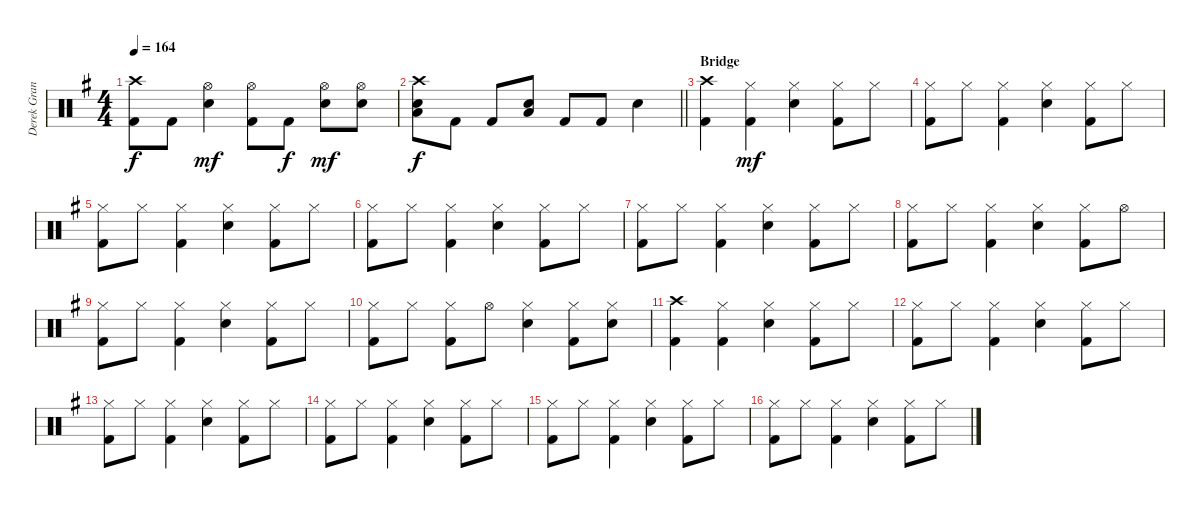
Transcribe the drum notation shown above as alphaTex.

\track ("Derek Grant - Drums" "Derek Gran") {instrument percussion}
\staff {score}
\articulation defaults
\ts (4 4)
\tempo 164
\clef neutral
\ks eminor
("Kick (hit) 2" "Crash high (hit)").8{dy f} "Kick (hit) 2".8 ("Snare (hit) 2" "Hi-Hat (open)").4{dy mf} ("Kick (hit) 2" "Hi-Hat (open)").8 "Kick (hit) 2".8{dy f} ("Snare (hit) 2" "Hi-Hat (open)").8{dy mf} ("Snare (hit) 2" "Hi-Hat (open)").8 |
\barLineRight lightlight
("Snare (hit) 2" "Low Tom (hit)" "Crash high (hit)").8{dy f} "Kick (hit) 2".8 "Kick (hit) 2".8 ("Low Tom (hit)" "Electric Snare (hit)").8 "Kick (hit) 2".8 "Kick (hit) 2".8 "Snare (hit) 2".4 |
\section ("" "Bridge")
("Crash high (hit)" "Kick (hit) 2").4 ("Kick (hit) 2" "Hi-Hat (closed)").4{dy mf} ("Snare (hit) 2" "Hi-Hat (closed)").4 ("Hi-Hat (closed)" "Kick (hit) 2").8 "Hi-Hat (closed)".8 |
("Hi-Hat (closed)" "Kick (hit) 2").8 "Hi-Hat (closed)".8 ("Kick (hit) 2" "Hi-Hat (closed)").4 ("Snare (hit) 2" "Hi-Hat (closed)").4 ("Hi-Hat (closed)" "Kick (hit) 2").8 "Hi-Hat (closed)".8 |
("Hi-Hat (closed)" "Kick (hit) 2").8 "Hi-Hat (closed)".8 ("Kick (hit) 2" "Hi-Hat (closed)").4 ("Snare (hit) 2" "Hi-Hat (closed)").4 ("Hi-Hat (closed)" "Kick (hit) 2").8 "Hi-Hat (closed)".8 |
("Hi-Hat (closed)" "Kick (hit) 2").8 "Hi-Hat (closed)".8 ("Kick (hit) 2" "Hi-Hat (closed)").4 ("Snare (hit) 2" "Hi-Hat (closed)").4 ("Hi-Hat (closed)" "Kick (hit) 2").8 "Hi-Hat (closed)".8 |
("Hi-Hat (closed)" "Kick (hit) 2").8 "Hi-Hat (closed)".8 ("Kick (hit) 2" "Hi-Hat (closed)").4 ("Snare (hit) 2" "Hi-Hat (closed)").4 ("Hi-Hat (closed)" "Kick (hit) 2").8 "Hi-Hat (closed)".8 |
("Hi-Hat (closed)" "Kick (hit) 2").8 "Hi-Hat (closed)".8 ("Kick (hit) 2" "Hi-Hat (closed)").4 ("Snare (hit) 2" "Hi-Hat (closed)").4 ("Hi-Hat (closed)" "Kick (hit) 2").8 "Hi-Hat (open)".8 |
("Hi-Hat (closed)" "Kick (hit) 2").8 "Hi-Hat (closed)".8 ("Kick (hit) 2" "Hi-Hat (closed)").4 ("Snare (hit) 2" "Hi-Hat (closed)").4 ("Hi-Hat (closed)" "Kick (hit) 2").8 "Hi-Hat (closed)".8 |
("Hi-Hat (closed)" "Kick (hit) 2").8 "Hi-Hat (closed)".8 ("Kick (hit) 2" "Hi-Hat (closed)").8 "Hi-Hat (open)".8 ("Snare (hit) 2" "Hi-Hat (closed)").4 ("Hi-Hat (closed)" "Kick (hit) 2").8 ("Snare (hit) 2" "Hi-Hat (closed)").8 |
("Crash high (hit)" "Kick (hit) 2").4 ("Kick (hit) 2" "Hi-Hat (closed)").4 ("Snare (hit) 2" "Hi-Hat (closed)").4 ("Hi-Hat (closed)" "Kick (hit) 2").8 "Hi-Hat (closed)".8 |
("Hi-Hat (closed)" "Kick (hit) 2").8 "Hi-Hat (closed)".8 ("Kick (hit) 2" "Hi-Hat (closed)").4 ("Snare (hit) 2" "Hi-Hat (closed)").4 ("Hi-Hat (closed)" "Kick (hit) 2").8 "Hi-Hat (closed)".8 |
("Hi-Hat (closed)" "Kick (hit) 2").8 "Hi-Hat (closed)".8 ("Kick (hit) 2" "Hi-Hat (closed)").4 ("Snare (hit) 2" "Hi-Hat (closed)").4 ("Hi-Hat (closed)" "Kick (hit) 2").8 "Hi-Hat (closed)".8 |
("Hi-Hat (closed)" "Kick (hit) 2").8 "Hi-Hat (closed)".8 ("Kick (hit) 2" "Hi-Hat (closed)").4 ("Snare (hit) 2" "Hi-Hat (closed)").4 ("Hi-Hat (closed)" "Kick (hit) 2").8 "Hi-Hat (closed)".8 |
("Hi-Hat (closed)" "Kick (hit) 2").8 "Hi-Hat (closed)".8 ("Kick (hit) 2" "Hi-Hat (closed)").4 ("Snare (hit) 2" "Hi-Hat (closed)").4 ("Hi-Hat (closed)" "Kick (hit) 2").8 "Hi-Hat (closed)".8 |
("Hi-Hat (closed)" "Kick (hit) 2").8 "Hi-Hat (closed)".8 ("Kick (hit) 2" "Hi-Hat (closed)").4 ("Snare (hit) 2" "Hi-Hat (closed)").4 ("Hi-Hat (closed)" "Kick (hit) 2").8 "Hi-Hat (closed)".8
